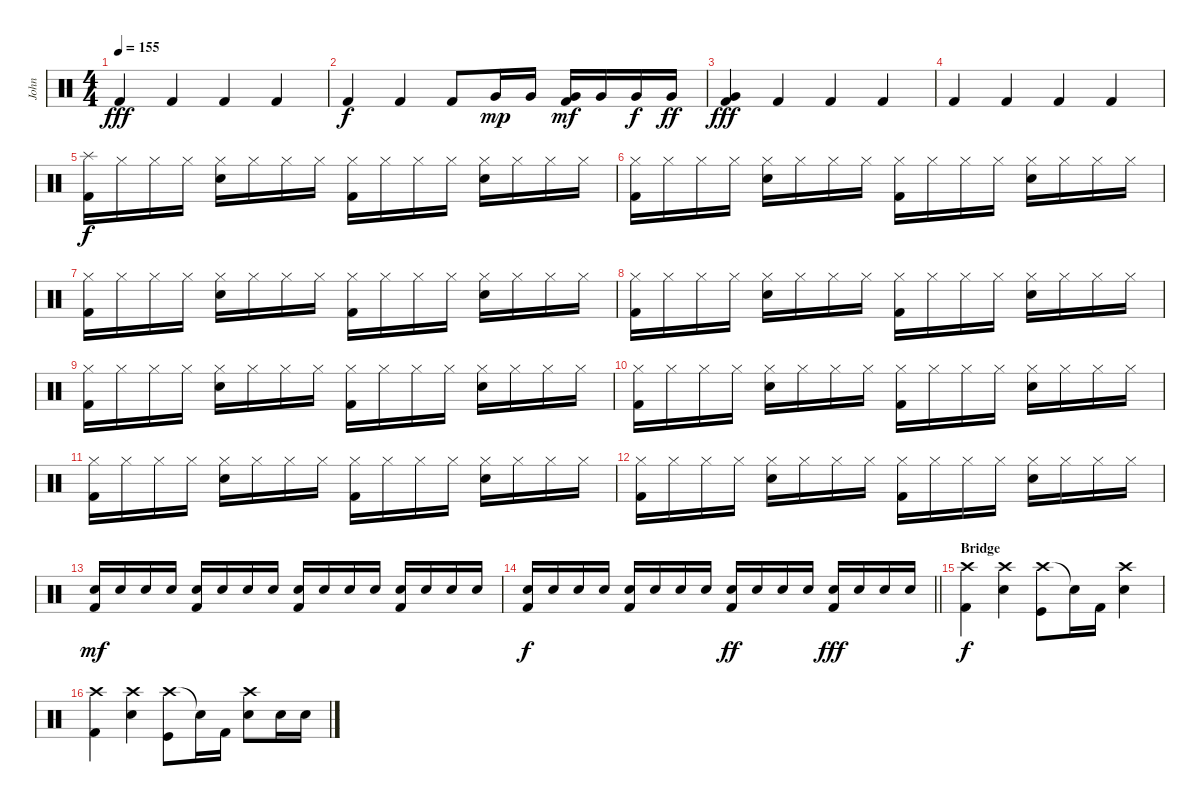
\track ("John" "John") {instrument percussion}
\staff {score}
\articulation defaults
\ts (4 4)
\tempo 155
\clef neutral
\ks c "Kick (hit) 2".4{dy fff} "Kick (hit) 2".4 "Kick (hit) 2".4 "Kick (hit) 2".4
|
"Kick (hit) 2".4{dy f} "Kick (hit) 2".4 "Kick (hit) 2".8 "Very Low Tom (hit)".16{dy mp} "Very Low Tom (hit)".16 ("Very Low Tom (hit)" "Kick (hit) 2").16{dy mf} "Very Low Tom (hit)".16 "Very Low Tom (hit)".16{dy f} "Very Low Tom (hit)".16{dy ff} |
("Very Low Tom (hit)" "Kick (hit) 2").4{dy fff} "Kick (hit) 2".4 "Kick (hit) 2".4 "Kick (hit) 2".4 |
"Kick (hit) 2".4 "Kick (hit) 2".4 "Kick (hit) 2".4 "Kick (hit) 2".4 |
("Splash (hit)" "Kick (hit) 2").16{dy f} "Hi-Hat (closed)".16 "Hi-Hat (closed)".16 "Hi-Hat (closed)".16 ("Hi-Hat (closed)" "Snare (hit) 2").16 "Hi-Hat (closed)".16 "Hi-Hat (closed)".16 "Hi-Hat (closed)".16 ("Hi-Hat (closed)" "Kick (hit) 2").16 "Hi-Hat (closed)".16 "Hi-Hat (closed)".16 "Hi-Hat (closed)".16 ("Hi-Hat (closed)" "Snare (hit) 2").16 "Hi-Hat (closed)".16 "Hi-Hat (closed)".16 "Hi-Hat (closed)".16 |
("Hi-Hat (closed)" "Kick (hit) 2").16 "Hi-Hat (closed)".16 "Hi-Hat (closed)".16 "Hi-Hat (closed)".16 ("Hi-Hat (closed)" "Snare (hit) 2").16 "Hi-Hat (closed)".16 "Hi-Hat (closed)".16 "Hi-Hat (closed)".16 ("Hi-Hat (closed)" "Kick (hit) 2").16 "Hi-Hat (closed)".16 "Hi-Hat (closed)".16 "Hi-Hat (closed)".16 ("Hi-Hat (closed)" "Snare (hit) 2").16 "Hi-Hat (closed)".16 "Hi-Hat (closed)".16 "Hi-Hat (closed)".16 |
("Hi-Hat (closed)" "Kick (hit) 2").16 "Hi-Hat (closed)".16 "Hi-Hat (closed)".16 "Hi-Hat (closed)".16 ("Hi-Hat (closed)" "Snare (hit) 2").16 "Hi-Hat (closed)".16 "Hi-Hat (closed)".16 "Hi-Hat (closed)".16 ("Hi-Hat (closed)" "Kick (hit) 2").16 "Hi-Hat (closed)".16 "Hi-Hat (closed)".16 "Hi-Hat (closed)".16 ("Hi-Hat (closed)" "Snare (hit) 2").16 "Hi-Hat (closed)".16 "Hi-Hat (closed)".16 "Hi-Hat (closed)".16 |
("Hi-Hat (closed)" "Kick (hit) 2").16 "Hi-Hat (closed)".16 "Hi-Hat (closed)".16 "Hi-Hat (closed)".16 ("Hi-Hat (closed)" "Snare (hit) 2").16 "Hi-Hat (closed)".16 "Hi-Hat (closed)".16 "Hi-Hat (closed)".16 ("Hi-Hat (closed)" "Kick (hit) 2").16 "Hi-Hat (closed)".16 "Hi-Hat (closed)".16 "Hi-Hat (closed)".16 ("Hi-Hat (closed)" "Snare (hit) 2").16 "Hi-Hat (closed)".16 "Hi-Hat (closed)".16 "Hi-Hat (closed)".16 |
("Hi-Hat (closed)" "Kick (hit) 2").16 "Hi-Hat (closed)".16 "Hi-Hat (closed)".16 "Hi-Hat (closed)".16 ("Hi-Hat (closed)" "Snare (hit) 2").16 "Hi-Hat (closed)".16 "Hi-Hat (closed)".16 "Hi-Hat (closed)".16 ("Hi-Hat (closed)" "Kick (hit) 2").16 "Hi-Hat (closed)".16 "Hi-Hat (closed)".16 "Hi-Hat (closed)".16 ("Hi-Hat (closed)" "Snare (hit) 2").16 "Hi-Hat (closed)".16 "Hi-Hat (closed)".16 "Hi-Hat (closed)".16 |
("Hi-Hat (closed)" "Kick (hit) 2").16 "Hi-Hat (closed)".16 "Hi-Hat (closed)".16 "Hi-Hat (closed)".16 ("Hi-Hat (closed)" "Snare (hit) 2").16 "Hi-Hat (closed)".16 "Hi-Hat (closed)".16 "Hi-Hat (closed)".16 ("Hi-Hat (closed)" "Kick (hit) 2").16 "Hi-Hat (closed)".16 "Hi-Hat (closed)".16 "Hi-Hat (closed)".16 ("Hi-Hat (closed)" "Snare (hit) 2").16 "Hi-Hat (closed)".16 "Hi-Hat (closed)".16 "Hi-Hat (closed)".16 |
("Hi-Hat (closed)" "Kick (hit) 2").16 "Hi-Hat (closed)".16 "Hi-Hat (closed)".16 "Hi-Hat (closed)".16 ("Hi-Hat (closed)" "Snare (hit) 2").16 "Hi-Hat (closed)".16 "Hi-Hat (closed)".16 "Hi-Hat (closed)".16 ("Hi-Hat (closed)" "Kick (hit) 2").16 "Hi-Hat (closed)".16 "Hi-Hat (closed)".16 "Hi-Hat (closed)".16 ("Hi-Hat (closed)" "Snare (hit) 2").16 "Hi-Hat (closed)".16 "Hi-Hat (closed)".16 "Hi-Hat (closed)".16 |
("Hi-Hat (closed)" "Kick (hit) 2").16 "Hi-Hat (closed)".16 "Hi-Hat (closed)".16 "Hi-Hat (closed)".16 ("Hi-Hat (closed)" "Snare (hit) 2").16 "Hi-Hat (closed)".16 "Hi-Hat (closed)".16 "Hi-Hat (closed)".16 ("Hi-Hat (closed)" "Kick (hit) 2").16 "Hi-Hat (closed)".16 "Hi-Hat (closed)".16 "Hi-Hat (closed)".16 ("Hi-Hat (closed)" "Snare (hit) 2").16 "Hi-Hat (closed)".16 "Hi-Hat (closed)".16 "Hi-Hat (closed)".16 |
("Snare (hit) 2" "Kick (hit) 2").16{dy mf} "Snare (hit) 2".16 "Snare (hit) 2".16 "Snare (hit) 2".16 ("Snare (hit) 2" "Kick (hit) 2").16 "Snare (hit) 2".16 "Snare (hit) 2".16 "Snare (hit) 2".16 ("Snare (hit) 2" "Kick (hit) 2").16 "Snare (hit) 2".16 "Snare (hit) 2".16 "Snare (hit) 2".16 ("Snare (hit) 2" "Kick (hit) 2").16 "Snare (hit) 2".16 "Snare (hit) 2".16 "Snare (hit) 2".16 |
\barLineRight lightlight
("Snare (hit) 2" "Kick (hit) 2").16{dy f} "Snare (hit) 2".16 "Snare (hit) 2".16 "Snare (hit) 2".16 ("Snare (hit) 2" "Kick (hit) 2").16 "Snare (hit) 2".16 "Snare (hit) 2".16 "Snare (hit) 2".16 ("Snare (hit) 2" "Kick (hit) 2").16{dy ff} "Snare (hit) 2".16 "Snare (hit) 2".16 "Snare (hit) 2".16 ("Snare (hit) 2" "Kick (hit) 2").16{dy fff} "Snare (hit) 2".16 "Snare (hit) 2".16 "Snare (hit) 2".16 |
\section ("" "Bridge")
("Crash high (hit)" "Kick (hit) 2").4{dy f} ("Crash high (hit)" "Snare (hit) 2").4 ("Crash high (hit)" "Kick (hit)").8 "Snare (hit)"{t}.16 "Kick (hit) 2".16 ("Crash high (hit)" "Snare (hit) 2").4 |
("Crash high (hit)" "Kick (hit) 2").4 ("Crash high (hit)" "Snare (hit) 2").4 ("Crash high (hit)" "Kick (hit)").8 "Snare (hit)"{t}.16 "Kick (hit) 2".16 ("Crash high (hit)" "Snare (hit) 2").8 "Snare (hit) 2".16 "Snare (hit) 2".16
